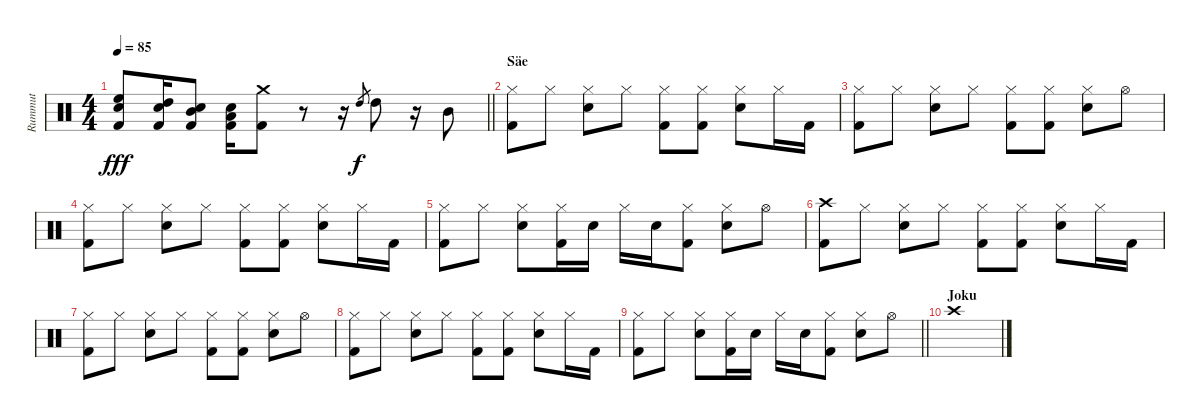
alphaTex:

\track ("Rummut" "Rummut") {instrument percussion}
\staff {score}
\articulation defaults
\ts (4 4)
\tempo 85
\clef neutral
\barLineRight lightlight
\ks c
("Electric Snare (hit)" "High Floor Tom (hit)" "Kick (hit) 2").8{dy fff} ("Electric Snare (hit)" "High Tom (hit)" "Kick (hit) 2").16 ("Electric Snare (hit)" "Mid Tom (hit)" "Kick (hit) 2").8 ("Electric Snare (hit)" "Low Tom (hit)" "Kick (hit) 2").16 ("Crash medium (hit)" "Kick (hit) 2").8 r.8 r.16 "High Tom (hit)".8{gr dy f} "High Tom (hit)".8 r.16 "Mid Tom (hit)".8 |
\section ("" "Säe")
("Hi-Hat (closed)" "Kick (hit) 2").8 "Hi-Hat (closed)".8 ("Hi-Hat (closed)" "Snare (hit) 2").8 "Hi-Hat (closed)".8 ("Hi-Hat (closed)" "Kick (hit) 2").8 ("Hi-Hat (closed)" "Kick (hit) 2").8 ("Hi-Hat (closed)" "Snare (hit) 2").8 "Hi-Hat (closed)".16 "Kick (hit) 2".16 |
("Hi-Hat (closed)" "Kick (hit) 2").8 "Hi-Hat (closed)".8 ("Hi-Hat (closed)" "Snare (hit) 2").8 "Hi-Hat (closed)".8 ("Hi-Hat (closed)" "Kick (hit) 2").8 ("Hi-Hat (closed)" "Kick (hit) 2").8 ("Hi-Hat (closed)" "Snare (hit) 2").8 "Hi-Hat (open)".8 |
("Hi-Hat (closed)" "Kick (hit) 2").8 "Hi-Hat (closed)".8 ("Hi-Hat (closed)" "Snare (hit) 2").8 "Hi-Hat (closed)".8 ("Hi-Hat (closed)" "Kick (hit) 2").8 ("Hi-Hat (closed)" "Kick (hit) 2").8 ("Hi-Hat (closed)" "Snare (hit) 2").8 "Hi-Hat (closed)".16 "Kick (hit) 2".16 |
("Hi-Hat (closed)" "Kick (hit) 2").8 "Hi-Hat (closed)".8 ("Hi-Hat (closed)" "Snare (hit) 2").8 ("Hi-Hat (closed)" "Kick (hit) 2").16 "Snare (hit) 2".16 "Hi-Hat (closed)".16 "Snare (hit) 2".16 ("Hi-Hat (closed)" "Kick (hit) 2").8 ("Hi-Hat (closed)" "Snare (hit) 2").8 "Hi-Hat (open)".8 |
("Crash high (hit)" "Kick (hit) 2").8 "Hi-Hat (closed)".8 ("Hi-Hat (closed)" "Snare (hit) 2").8 "Hi-Hat (closed)".8 ("Hi-Hat (closed)" "Kick (hit) 2").8 ("Hi-Hat (closed)" "Kick (hit) 2").8 ("Hi-Hat (closed)" "Snare (hit) 2").8 "Hi-Hat (closed)".16 "Kick (hit) 2".16 |
("Hi-Hat (closed)" "Kick (hit) 2").8 "Hi-Hat (closed)".8 ("Hi-Hat (closed)" "Snare (hit) 2").8 "Hi-Hat (closed)".8 ("Hi-Hat (closed)" "Kick (hit) 2").8 ("Hi-Hat (closed)" "Kick (hit) 2").8 ("Hi-Hat (closed)" "Snare (hit) 2").8 "Hi-Hat (open)".8 |
("Hi-Hat (closed)" "Kick (hit) 2").8 "Hi-Hat (closed)".8 ("Hi-Hat (closed)" "Snare (hit) 2").8 "Hi-Hat (closed)".8 ("Hi-Hat (closed)" "Kick (hit) 2").8 ("Hi-Hat (closed)" "Kick (hit) 2").8 ("Hi-Hat (closed)" "Snare (hit) 2").8 "Hi-Hat (closed)".16 "Kick (hit) 2".16 |
\barLineRight lightlight
("Hi-Hat (closed)" "Kick (hit) 2").8 "Hi-Hat (closed)".8 ("Hi-Hat (closed)" "Snare (hit) 2").8 ("Hi-Hat (closed)" "Kick (hit) 2").16 "Snare (hit) 2".16 "Hi-Hat (closed)".16 "Snare (hit) 2".16 ("Hi-Hat (closed)" "Kick (hit) 2").8 ("Hi-Hat (closed)" "Snare (hit) 2").8 "Hi-Hat (open)".8 |
\section ("" "Joku")
"Crash high (hit)".1
